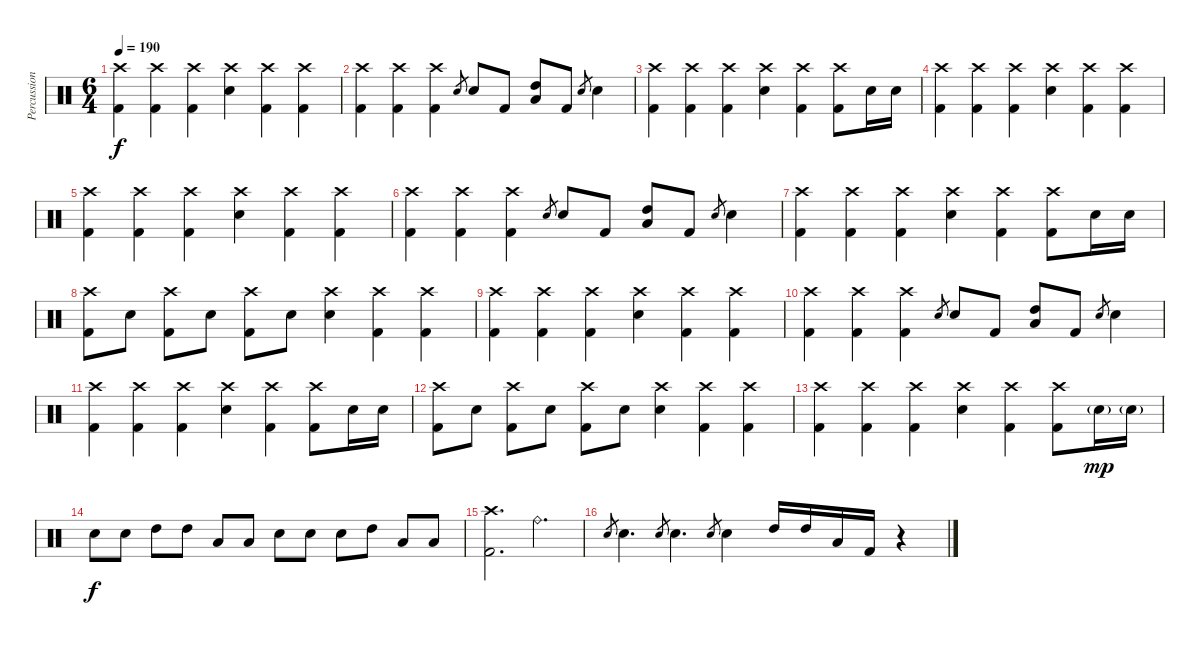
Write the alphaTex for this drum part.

\track ("Percussion" "Percussion") {instrument percussion}
\staff {score}
\articulation defaults
\ts (6 4)
\tempo 190
\clef neutral
\ks c
("Crash high (hit)" "Kick (hit) 2").4{dy f} ("Crash high (hit)" "Kick (hit) 2").4 ("Crash high (hit)" "Kick (hit) 2").4 ("Crash high (hit)" "Electric Snare (hit)").4 ("Crash high (hit)" "Kick (hit) 2").4 ("Crash high (hit)" "Kick (hit) 2").4 |
("Crash high (hit)" "Kick (hit) 2").4 ("Crash high (hit)" "Kick (hit) 2").4 ("Crash high (hit)" "Kick (hit) 2").4 "Electric Snare (hit)".8{gr} "Electric Snare (hit)".8 "Kick (hit) 2".8 ("High Tom (hit)" "Low Tom (hit)").8 "Kick (hit) 2".8 "Electric Snare (hit)".8{gr} "Electric Snare (hit)".4 |
("Crash high (hit)" "Kick (hit) 2").4 ("Crash high (hit)" "Kick (hit) 2").4 ("Crash high (hit)" "Kick (hit) 2").4 ("Crash high (hit)" "Electric Snare (hit)").4 ("Crash high (hit)" "Kick (hit) 2").4 ("Crash high (hit)" "Kick (hit) 2").8 "Electric Snare (hit)".16 "Electric Snare (hit)".16 |
("Crash high (hit)" "Kick (hit) 2").4 ("Crash high (hit)" "Kick (hit) 2").4 ("Crash high (hit)" "Kick (hit) 2").4 ("Crash high (hit)" "Electric Snare (hit)").4 ("Crash high (hit)" "Kick (hit) 2").4 ("Crash high (hit)" "Kick (hit) 2").4 |
("Crash high (hit)" "Kick (hit) 2").4 ("Crash high (hit)" "Kick (hit) 2").4 ("Crash high (hit)" "Kick (hit) 2").4 ("Crash high (hit)" "Electric Snare (hit)").4 ("Crash high (hit)" "Kick (hit) 2").4 ("Crash high (hit)" "Kick (hit) 2").4 |
("Crash high (hit)" "Kick (hit) 2").4 ("Crash high (hit)" "Kick (hit) 2").4 ("Crash high (hit)" "Kick (hit) 2").4 "Electric Snare (hit)".8{gr} "Electric Snare (hit)".8 "Kick (hit) 2".8 ("High Tom (hit)" "Low Tom (hit)").8 "Kick (hit) 2".8 "Electric Snare (hit)".8{gr} "Electric Snare (hit)".4 |
("Crash high (hit)" "Kick (hit) 2").4 ("Crash high (hit)" "Kick (hit) 2").4 ("Crash high (hit)" "Kick (hit) 2").4 ("Crash high (hit)" "Electric Snare (hit)").4 ("Crash high (hit)" "Kick (hit) 2").4 ("Crash high (hit)" "Kick (hit) 2").8 "Electric Snare (hit)".16 "Electric Snare (hit)".16 |
("Crash high (hit)" "Kick (hit) 2").8 "Electric Snare (hit)".8 ("Crash high (hit)" "Kick (hit) 2").8 "Electric Snare (hit)".8 ("Crash high (hit)" "Kick (hit) 2").8 "Electric Snare (hit)".8 ("Crash high (hit)" "Electric Snare (hit)").4 ("Crash high (hit)" "Kick (hit) 2").4 ("Crash high (hit)" "Kick (hit) 2").4 |
("Crash high (hit)" "Kick (hit) 2").4 ("Crash high (hit)" "Kick (hit) 2").4 ("Crash high (hit)" "Kick (hit) 2").4 ("Crash high (hit)" "Electric Snare (hit)").4 ("Crash high (hit)" "Kick (hit) 2").4 ("Crash high (hit)" "Kick (hit) 2").4 |
("Crash high (hit)" "Kick (hit) 2").4 ("Crash high (hit)" "Kick (hit) 2").4 ("Crash high (hit)" "Kick (hit) 2").4 "Electric Snare (hit)".8{gr} "Electric Snare (hit)".8 "Kick (hit) 2".8 ("High Tom (hit)" "Low Tom (hit)").8 "Kick (hit) 2".8 "Electric Snare (hit)".8{gr} "Electric Snare (hit)".4 |
("Crash high (hit)" "Kick (hit) 2").4 ("Crash high (hit)" "Kick (hit) 2").4 ("Crash high (hit)" "Kick (hit) 2").4 ("Crash high (hit)" "Electric Snare (hit)").4 ("Crash high (hit)" "Kick (hit) 2").4 ("Crash high (hit)" "Kick (hit) 2").8 "Electric Snare (hit)".16 "Electric Snare (hit)".16 |
("Crash high (hit)" "Kick (hit) 2").8 "Electric Snare (hit)".8 ("Crash high (hit)" "Kick (hit) 2").8 "Electric Snare (hit)".8 ("Crash high (hit)" "Kick (hit) 2").8 "Electric Snare (hit)".8 ("Crash high (hit)" "Electric Snare (hit)").4 ("Crash high (hit)" "Kick (hit) 2").4 ("Crash high (hit)" "Kick (hit) 2").4 |
("Crash high (hit)" "Kick (hit) 2").4 ("Crash high (hit)" "Kick (hit) 2").4 ("Crash high (hit)" "Kick (hit) 2").4 ("Crash high (hit)" "Electric Snare (hit)").4 ("Crash high (hit)" "Kick (hit) 2").4 ("Crash high (hit)" "Kick (hit) 2").8 "Electric Snare (hit)"{g}.16{dy mp} "Electric Snare (hit)"{g}.16 |
"Electric Snare (hit)".8{dy f} "Electric Snare (hit)".8 "High Tom (hit)".8 "High Tom (hit)".8 "Low Tom (hit)".8 "Low Tom (hit)".8 "Electric Snare (hit)".8 "Electric Snare (hit)".8 "Electric Snare (hit)".8 "High Tom (hit)".8 "Low Tom (hit)".8 "Low Tom (hit)".8 |
("Crash high (hit)" "Kick (hit) 2").2{d} "Ride (bell)".2{d} |
"Electric Snare (hit)".8{gr} "Electric Snare (hit)".4{d} "Electric Snare (hit)".8{gr} "Electric Snare (hit)".4{d} "Electric Snare (hit)".8{gr} "Electric Snare (hit)".4 "High Tom (hit)".16 "High Tom (hit)".16 "Low Tom (hit)".16 "Kick (hit) 2".16 r.4
